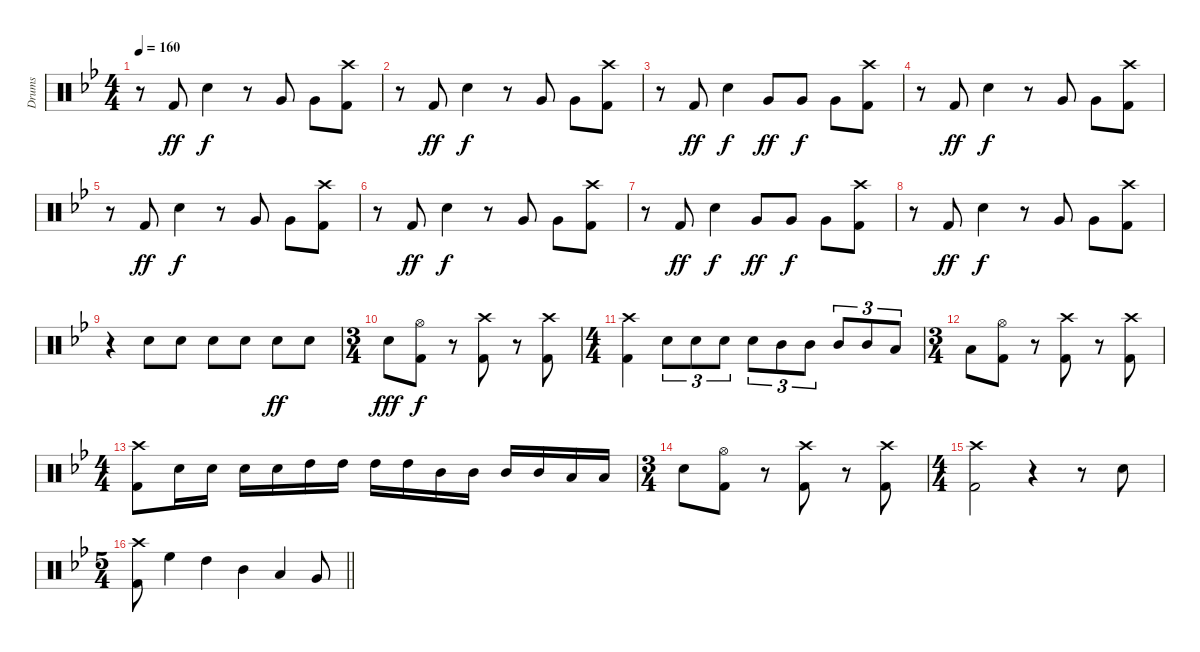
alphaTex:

\track ("Drums" "Drums") {instrument percussion}
\staff {score}
\articulation defaults
\ts (4 4)
\tempo 160
\clef neutral
\ks bb
r.8{dy f} "Kick (hit) 2".8{dy ff} "Electric Snare (hit)".4{dy f} r.8 "Very Low Tom (hit)".8 "Very Low Tom (hit)".8 ("Crash high (hit)" "Kick (hit) 2").8 |
r.8 "Kick (hit) 2".8{dy ff} "Electric Snare (hit)".4{dy f} r.8 "Very Low Tom (hit)".8 "Very Low Tom (hit)".8 ("Crash high (hit)" "Kick (hit) 2").8 |
r.8 "Kick (hit) 2".8{dy ff} "Electric Snare (hit)".4{dy f} "Very Low Tom (hit)".8{dy ff} "Very Low Tom (hit)".8{dy f} "Very Low Tom (hit)".8 ("Crash high (hit)" "Kick (hit) 2").8 |
r.8 "Kick (hit) 2".8{dy ff} "Electric Snare (hit)".4{dy f} r.8 "Very Low Tom (hit)".8 "Very Low Tom (hit)".8 ("Crash high (hit)" "Kick (hit) 2").8 |
r.8 "Kick (hit) 2".8{dy ff} "Electric Snare (hit)".4{dy f} r.8 "Very Low Tom (hit)".8 "Very Low Tom (hit)".8 ("Crash high (hit)" "Kick (hit) 2").8 |
r.8 "Kick (hit) 2".8{dy ff} "Electric Snare (hit)".4{dy f} r.8 "Very Low Tom (hit)".8 "Very Low Tom (hit)".8 ("Crash high (hit)" "Kick (hit) 2").8 |
r.8 "Kick (hit) 2".8{dy ff} "Electric Snare (hit)".4{dy f} "Very Low Tom (hit)".8{dy ff} "Very Low Tom (hit)".8{dy f} "Very Low Tom (hit)".8 ("Crash high (hit)" "Kick (hit) 2").8 |
r.8 "Kick (hit) 2".8{dy ff} "Electric Snare (hit)".4{dy f} r.8 "Very Low Tom (hit)".8 "Very Low Tom (hit)".8 ("Crash high (hit)" "Kick (hit) 2").8 |
r.4 "Electric Snare (hit)".8 "Electric Snare (hit)".8 "Electric Snare (hit)".8 "Electric Snare (hit)".8 "Electric Snare (hit)".8{dy ff} "Electric Snare (hit)".8 |
\ts (3 4)
"Electric Snare (hit)".8{dy fff} ("Hi-Hat (open)" "Kick (hit) 2").8{dy f} r.8 ("Crash high (hit)" "Kick (hit) 2").8 r.8 ("Crash high (hit)" "Kick (hit) 2").8 |
\ts (4 4)
("Crash high (hit)" "Kick (hit) 2").4 "Electric Snare (hit)".8{tu (3 2)} "Electric Snare (hit)".8{tu (3 2)} "Electric Snare (hit)".8{tu (3 2)} "Electric Snare (hit)".8{tu (3 2)} "Mid Tom (hit)".8{tu (3 2)} "Mid Tom (hit)".8{tu (3 2)} "Mid Tom (hit)".8{tu (3 2)} "Mid Tom (hit)".8{tu (3 2)} "Low Tom (hit)".8{tu (3 2)} |
\ts (3 4)
"Low Tom (hit)".8 ("Hi-Hat (open)" "Kick (hit) 2").8 r.8 ("Crash high (hit)" "Kick (hit) 2").8 r.8 ("Crash high (hit)" "Kick (hit) 2").8 |
\ts (4 4)
("Crash high (hit)" "Kick (hit) 2").8 "Electric Snare (hit)".16 "Electric Snare (hit)".16 "Electric Snare (hit)".16 "Electric Snare (hit)".16 "High Tom (hit)".16 "High Tom (hit)".16 "High Tom (hit)".16 "High Tom (hit)".16 "Mid Tom (hit)".16 "Mid Tom (hit)".16 "Mid Tom (hit)".16 "Mid Tom (hit)".16 "Low Tom (hit)".16 "Low Tom (hit)".16 |
\ts (3 4)
"Electric Snare (hit)".8 ("Hi-Hat (open)" "Kick (hit) 2").8 r.8 ("Crash high (hit)" "Kick (hit) 2").8 r.8 ("Crash high (hit)" "Kick (hit) 2").8 |
\ts (4 4)
("Crash high (hit)" "Kick (hit) 2").2 r.4 r.8 "Electric Snare (hit)".8 |
\ts (5 4)
\barLineRight lightlight
("Crash high (hit)" "Kick (hit) 2").8 "High Floor Tom (hit)".4 "High Tom (hit)".4 "Mid Tom (hit)".4 "Low Tom (hit)".4 "Very Low Tom (hit)".8
